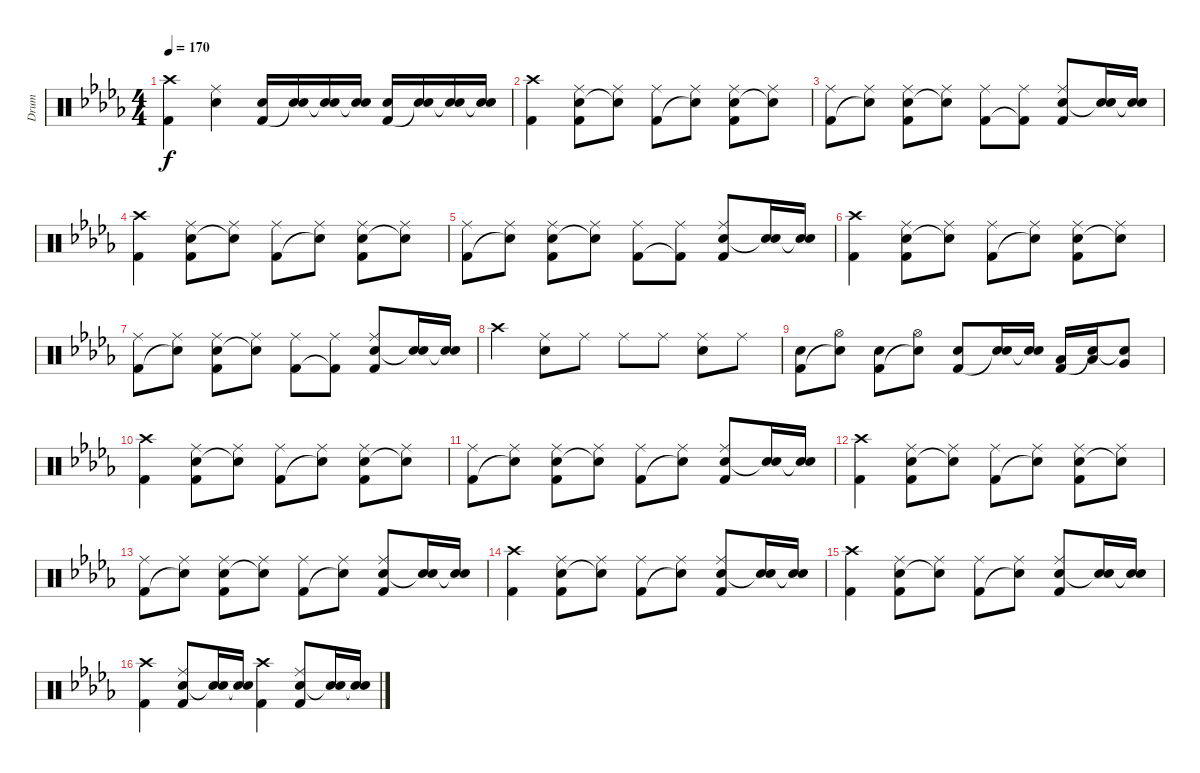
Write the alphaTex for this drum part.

\track ("Drum" "Drum") {instrument percussion}
\staff {score}
\articulation defaults
\ts (4 4)
\tempo 170
\clef neutral
\ks db
("Crash high (hit)" "Kick (hit) 2").4{dy f} ("Ride (middle)" "Electric Snare (hit)").4 ("Electric Snare (hit)" "Kick (hit) 2").16 ("Electric Snare (hit)" "Snare (hit)"{t}).16 ("Electric Snare (hit)" "Snare (hit)"{t}).16 ("Electric Snare (hit)" "Snare (hit)"{t}).16 ("Electric Snare (hit)" "Kick (hit) 2").16 ("Electric Snare (hit)" "Snare (hit)"{t}).16 ("Electric Snare (hit)" "Snare (hit)"{t}).16 ("Electric Snare (hit)" "Snare (hit)"{t}).16 |
("Crash high (hit)" "Kick (hit) 2").4 ("Ride (middle)" "Electric Snare (hit)" "Kick (hit) 2").8 ("Ride (middle)" "Snare (hit)"{t}).8 ("Ride (middle)" "Kick (hit) 2").8 ("Ride (middle)" "Snare (hit)"{t}).8 ("Ride (middle)" "Electric Snare (hit)" "Kick (hit) 2").8 ("Ride (middle)" "Snare (hit)"{t}).8 |
("Ride (middle)" "Kick (hit) 2").8 ("Ride (middle)" "Electric Snare (hit)"{t}).8 ("Ride (middle)" "Electric Snare (hit)" "Kick (hit) 2").8 ("Ride (middle)" "Snare (hit)"{t}).8 ("Ride (middle)" "Kick (hit) 2").8 ("Ride (middle)" "Kick (hit) 2"{t}).8 ("Ride (middle)" "Electric Snare (hit)" "Kick (hit) 2").8 ("Electric Snare (hit)" "Snare (hit)"{t}).16 ("Electric Snare (hit)" "Snare (hit)"{t}).16 |
("Crash high (hit)" "Kick (hit) 2").4 ("Ride (middle)" "Electric Snare (hit)" "Kick (hit) 2").8 ("Ride (middle)" "Snare (hit)"{t}).8 ("Ride (middle)" "Kick (hit) 2").8 ("Ride (middle)" "Snare (hit)"{t}).8 ("Ride (middle)" "Electric Snare (hit)" "Kick (hit) 2").8 ("Ride (middle)" "Snare (hit)"{t}).8 |
("Ride (middle)" "Kick (hit) 2").8 ("Ride (middle)" "Electric Snare (hit)"{t}).8 ("Ride (middle)" "Electric Snare (hit)" "Kick (hit) 2").8 ("Ride (middle)" "Snare (hit)"{t}).8 ("Ride (middle)" "Kick (hit) 2").8 ("Ride (middle)" "Kick (hit) 2"{t}).8 ("Ride (middle)" "Electric Snare (hit)" "Kick (hit) 2").8 ("Electric Snare (hit)" "Snare (hit)"{t}).16 ("Electric Snare (hit)" "Snare (hit)"{t}).16 |
("Crash high (hit)" "Kick (hit) 2").4 ("Ride (middle)" "Electric Snare (hit)" "Kick (hit) 2").8 ("Ride (middle)" "Snare (hit)"{t}).8 ("Ride (middle)" "Kick (hit) 2").8 ("Ride (middle)" "Snare (hit)"{t}).8 ("Ride (middle)" "Electric Snare (hit)" "Kick (hit) 2").8 ("Ride (middle)" "Snare (hit)"{t}).8 |
("Ride (middle)" "Kick (hit) 2").8 ("Ride (middle)" "Electric Snare (hit)"{t}).8 ("Ride (middle)" "Electric Snare (hit)" "Kick (hit) 2").8 ("Ride (middle)" "Snare (hit)"{t}).8 ("Ride (middle)" "Kick (hit) 2").8 ("Ride (middle)" "Kick (hit) 2"{t}).8 ("Ride (middle)" "Electric Snare (hit)" "Kick (hit) 2").8 ("Electric Snare (hit)" "Snare (hit)"{t}).16 ("Electric Snare (hit)" "Snare (hit)"{t}).16 |
"Crash high (hit)".4 ("Ride (middle)" "Electric Snare (hit)").8 "Ride (middle)".8 "Ride (middle)".8 "Ride (middle)".8 ("Ride (middle)" "Electric Snare (hit)").8 "Ride (middle)".8 |
("Electric Snare (hit)" "Kick (hit) 2").8 ("Hi-Hat (open)" "Snare (hit)"{t}).8 ("Electric Snare (hit)" "Kick (hit) 2").8 ("Hi-Hat (open)" "Snare (hit)"{t}).8 ("Electric Snare (hit)" "Kick (hit) 2").8 ("Electric Snare (hit)" "Snare (hit)"{t}).16 ("Electric Snare (hit)" "Snare (hit)"{t}).16 ("Low Tom (hit)" "Kick (hit) 2").16 ("Low Tom (hit)" "Snare (hit)"{t}).16 ("Very Low Tom (hit)" "Snare (hit)"{t}).8 |
("Crash high (hit)" "Kick (hit) 2").4 ("Ride (middle)" "Electric Snare (hit)" "Kick (hit) 2").8 ("Ride (middle)" "Snare (hit)"{t}).8 ("Ride (middle)" "Kick (hit) 2").8 ("Ride (middle)" "Snare (hit)"{t}).8 ("Ride (middle)" "Electric Snare (hit)" "Kick (hit) 2").8 ("Ride (middle)" "Snare (hit)"{t}).8 |
("Ride (middle)" "Kick (hit) 2").8 ("Ride (middle)" "Snare (hit)"{t}).8 ("Ride (middle)" "Electric Snare (hit)" "Kick (hit) 2").8 ("Ride (middle)" "Snare (hit)"{t}).8 ("Ride (middle)" "Kick (hit) 2").8 ("Ride (middle)" "Snare (hit)"{t}).8 ("Ride (middle)" "Electric Snare (hit)" "Kick (hit) 2").8 ("Electric Snare (hit)" "Snare (hit)"{t}).16 ("Electric Snare (hit)" "Snare (hit)"{t}).16 |
("Crash high (hit)" "Kick (hit) 2").4 ("Ride (middle)" "Electric Snare (hit)" "Kick (hit) 2").8 ("Ride (middle)" "Snare (hit)"{t}).8 ("Ride (middle)" "Kick (hit) 2").8 ("Ride (middle)" "Snare (hit)"{t}).8 ("Ride (middle)" "Electric Snare (hit)" "Kick (hit) 2").8 ("Ride (middle)" "Snare (hit)"{t}).8 |
("Ride (middle)" "Kick (hit) 2").8 ("Ride (middle)" "Snare (hit)"{t}).8 ("Ride (middle)" "Electric Snare (hit)" "Kick (hit) 2").8 ("Ride (middle)" "Snare (hit)"{t}).8 ("Ride (middle)" "Kick (hit) 2").8 ("Ride (middle)" "Snare (hit)"{t}).8 ("Ride (middle)" "Electric Snare (hit)" "Kick (hit) 2").8 ("Electric Snare (hit)" "Snare (hit)"{t}).16 ("Electric Snare (hit)" "Snare (hit)"{t}).16 |
("Crash high (hit)" "Kick (hit) 2").4 ("Ride (middle)" "Electric Snare (hit)" "Kick (hit) 2").8 ("Ride (middle)" "Snare (hit)"{t}).8 ("Ride (middle)" "Kick (hit) 2").8 ("Ride (middle)" "Snare (hit)"{t}).8 ("Ride (middle)" "Electric Snare (hit)" "Kick (hit) 2").8 ("Electric Snare (hit)" "Snare (hit)"{t}).16 ("Electric Snare (hit)" "Snare (hit)"{t}).16 |
("Crash high (hit)" "Kick (hit) 2").4 ("Ride (middle)" "Electric Snare (hit)" "Kick (hit) 2").8 ("Ride (middle)" "Snare (hit)"{t}).8 ("Ride (middle)" "Kick (hit) 2").8 ("Ride (middle)" "Snare (hit)"{t}).8 ("Ride (middle)" "Electric Snare (hit)" "Kick (hit) 2").8 ("Electric Snare (hit)" "Snare (hit)"{t}).16 ("Electric Snare (hit)" "Snare (hit)"{t}).16 |
("Crash high (hit)" "Kick (hit) 2").4 ("Ride (middle)" "Electric Snare (hit)" "Kick (hit) 2").8 ("Electric Snare (hit)" "Snare (hit)"{t}).16 ("Electric Snare (hit)" "Snare (hit)"{t}).16 ("Crash high (hit)" "Kick (hit) 2").4 ("Ride (middle)" "Electric Snare (hit)" "Kick (hit) 2").8 ("Electric Snare (hit)" "Snare (hit)"{t}).16 ("Electric Snare (hit)" "Snare (hit)"{t}).16
